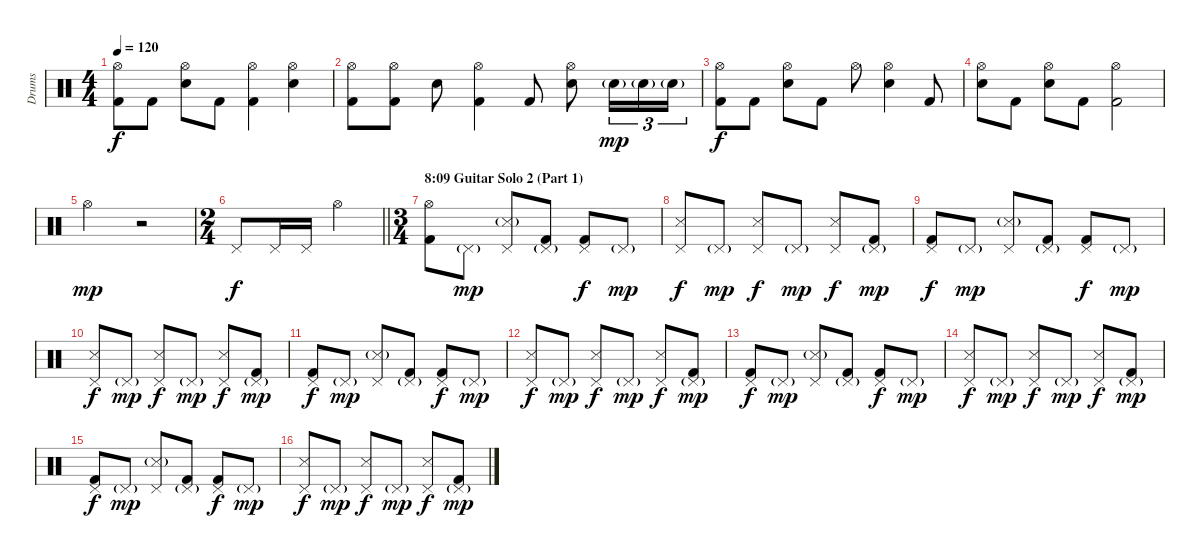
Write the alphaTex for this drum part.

\track ("Drums" "Drums") {instrument percussion}
\staff {score}
\articulation defaults
\ts (4 4)
\tempo 120
\clef neutral
\ks c
("Hi-Hat (open)" "Kick (hit) 2").8{dy f} "Kick (hit) 2".8 ("Hi-Hat (open)" "Snare (hit) 2").8 "Kick (hit) 2".8 ("Hi-Hat (open)" "Kick (hit) 2").4 ("Hi-Hat (open)" "Snare (hit) 2").4 |
("Hi-Hat (open)" "Kick (hit) 2").8 ("Hi-Hat (open)" "Kick (hit) 2").8 "Snare (hit) 2".8 ("Hi-Hat (open)" "Kick (hit) 2").4 "Kick (hit) 2".8 ("Hi-Hat (open)" "Snare (hit) 2").8 "Snare (hit) 2"{g}.16{tu (3 2) dy mp} "Snare (hit) 2"{g}.16{tu (3 2)} "Snare (hit) 2"{g}.16{tu (3 2)} |
("Hi-Hat (open)" "Kick (hit) 2").8{dy f} "Kick (hit) 2".8 ("Hi-Hat (open)" "Snare (hit) 2").8 "Kick (hit) 2".8 "Hi-Hat (open)".8 ("Hi-Hat (open)" "Snare (hit) 2").4 "Kick (hit) 2".8 |
("Hi-Hat (open)" "Snare (hit) 2").8 "Kick (hit) 2".8 ("Hi-Hat (open)" "Snare (hit) 2").8 "Kick (hit) 2".8 ("Hi-Hat (open)" "Kick (hit) 2").2 |
"Hi-Hat (open)".2{dy mp} r.2 |
\ts (2 4)
\barLineRight lightlight "Pedal Hi-Hat (hit)".8{dy f} "Pedal Hi-Hat (hit)".16 "Pedal Hi-Hat (hit)".16 "Hi-Hat (open)".4
|
\ts (3 4)
\section ("" "8:09 Guitar Solo 2 (Part 1)")
("Hi-Hat (open)" "Kick (hit) 2").8 "Pedal Hi-Hat (hit)"{g}.8{dy mp} ("Pedal Hi-Hat (hit)" "Snare (side stick) 3"{g}).8 ("Pedal Hi-Hat (hit)"{g} "Kick (hit) 2").8 ("Pedal Hi-Hat (hit)" "Kick (hit) 2").8{dy f} "Pedal Hi-Hat (hit)"{g}.8{dy mp} |
("Pedal Hi-Hat (hit)" "Snare (side stick) 3").8{dy f} "Pedal Hi-Hat (hit)"{g}.8{dy mp} ("Pedal Hi-Hat (hit)" "Snare (side stick) 3").8{dy f} "Pedal Hi-Hat (hit)"{g}.8{dy mp} ("Pedal Hi-Hat (hit)" "Snare (side stick) 3").8{dy f} ("Pedal Hi-Hat (hit)"{g} "Kick (hit) 2").8{dy mp} |
("Pedal Hi-Hat (hit)" "Kick (hit) 2").8{dy f} "Pedal Hi-Hat (hit)"{g}.8{dy mp} ("Pedal Hi-Hat (hit)" "Snare (side stick) 3"{g}).8 ("Pedal Hi-Hat (hit)"{g} "Kick (hit) 2").8 ("Pedal Hi-Hat (hit)" "Kick (hit) 2").8{dy f} "Pedal Hi-Hat (hit)"{g}.8{dy mp} |
("Pedal Hi-Hat (hit)" "Snare (side stick) 3").8{dy f} "Pedal Hi-Hat (hit)"{g}.8{dy mp} ("Pedal Hi-Hat (hit)" "Snare (side stick) 3").8{dy f} "Pedal Hi-Hat (hit)"{g}.8{dy mp} ("Pedal Hi-Hat (hit)" "Snare (side stick) 3").8{dy f} ("Pedal Hi-Hat (hit)"{g} "Kick (hit) 2").8{dy mp} |
("Pedal Hi-Hat (hit)" "Kick (hit) 2").8{dy f} "Pedal Hi-Hat (hit)"{g}.8{dy mp} ("Pedal Hi-Hat (hit)" "Snare (side stick) 3"{g}).8 ("Pedal Hi-Hat (hit)"{g} "Kick (hit) 2").8 ("Pedal Hi-Hat (hit)" "Kick (hit) 2").8{dy f} "Pedal Hi-Hat (hit)"{g}.8{dy mp} |
("Pedal Hi-Hat (hit)" "Snare (side stick) 3").8{dy f} "Pedal Hi-Hat (hit)"{g}.8{dy mp} ("Pedal Hi-Hat (hit)" "Snare (side stick) 3").8{dy f} "Pedal Hi-Hat (hit)"{g}.8{dy mp} ("Pedal Hi-Hat (hit)" "Snare (side stick) 3").8{dy f} ("Pedal Hi-Hat (hit)"{g} "Kick (hit) 2").8{dy mp} |
("Pedal Hi-Hat (hit)" "Kick (hit) 2").8{dy f} "Pedal Hi-Hat (hit)"{g}.8{dy mp} ("Pedal Hi-Hat (hit)" "Snare (side stick) 3"{g}).8 ("Pedal Hi-Hat (hit)"{g} "Kick (hit) 2").8 ("Pedal Hi-Hat (hit)" "Kick (hit) 2").8{dy f} "Pedal Hi-Hat (hit)"{g}.8{dy mp} |
("Pedal Hi-Hat (hit)" "Snare (side stick) 3").8{dy f} "Pedal Hi-Hat (hit)"{g}.8{dy mp} ("Pedal Hi-Hat (hit)" "Snare (side stick) 3").8{dy f} "Pedal Hi-Hat (hit)"{g}.8{dy mp} ("Pedal Hi-Hat (hit)" "Snare (side stick) 3").8{dy f} ("Pedal Hi-Hat (hit)"{g} "Kick (hit) 2").8{dy mp} |
("Pedal Hi-Hat (hit)" "Kick (hit) 2").8{dy f} "Pedal Hi-Hat (hit)"{g}.8{dy mp} ("Pedal Hi-Hat (hit)" "Snare (side stick) 3"{g}).8 ("Pedal Hi-Hat (hit)"{g} "Kick (hit) 2").8 ("Pedal Hi-Hat (hit)" "Kick (hit) 2").8{dy f} "Pedal Hi-Hat (hit)"{g}.8{dy mp} |
("Pedal Hi-Hat (hit)" "Snare (side stick) 3").8{dy f} "Pedal Hi-Hat (hit)"{g}.8{dy mp} ("Pedal Hi-Hat (hit)" "Snare (side stick) 3").8{dy f} "Pedal Hi-Hat (hit)"{g}.8{dy mp} ("Pedal Hi-Hat (hit)" "Snare (side stick) 3").8{dy f} ("Pedal Hi-Hat (hit)"{g} "Kick (hit) 2").8{dy mp}
